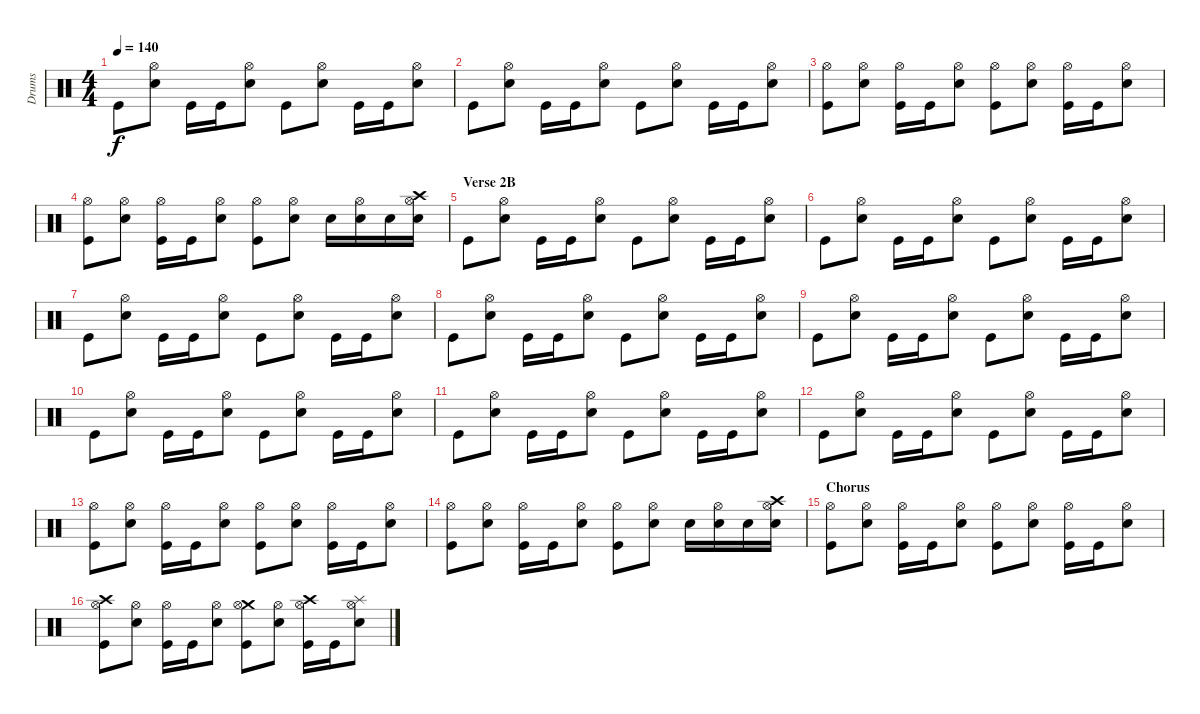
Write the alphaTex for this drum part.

\track ("Drums" "Drums") {instrument percussion}
\staff {score}
\articulation defaults
\ts (4 4)
\tempo 140
\clef neutral
\ks c "Kick (hit)".8{dy f}
("Snare (hit) 2" "Hi-Hat (open)").8 "Kick (hit)".16 "Kick (hit)".16 ("Snare (hit) 2" "Hi-Hat (open)").8 "Kick (hit)".8 ("Snare (hit) 2" "Hi-Hat (open)").8 "Kick (hit)".16 "Kick (hit)".16 ("Snare (hit) 2" "Hi-Hat (open)").8 |
"Kick (hit)".8 ("Snare (hit) 2" "Hi-Hat (open)").8 "Kick (hit)".16 "Kick (hit)".16 ("Snare (hit) 2" "Hi-Hat (open)").8 "Kick (hit)".8 ("Snare (hit) 2" "Hi-Hat (open)").8 "Kick (hit)".16 "Kick (hit)".16 ("Snare (hit) 2" "Hi-Hat (open)").8 |
("Kick (hit)" "Hi-Hat (open)").8 ("Snare (hit) 2" "Hi-Hat (open)").8 ("Kick (hit)" "Hi-Hat (open)").16 "Kick (hit)".16 ("Snare (hit) 2" "Hi-Hat (open)").8 ("Kick (hit)" "Hi-Hat (open)").8 ("Snare (hit) 2" "Hi-Hat (open)").8 ("Kick (hit)" "Hi-Hat (open)").16 "Kick (hit)".16 ("Snare (hit) 2" "Hi-Hat (open)").8 |
("Kick (hit)" "Hi-Hat (open)").8 ("Snare (hit) 2" "Hi-Hat (open)").8 ("Kick (hit)" "Hi-Hat (open)").16 "Kick (hit)".16 ("Snare (hit) 2" "Hi-Hat (open)").8 ("Kick (hit)" "Hi-Hat (open)").8 ("Snare (hit) 2" "Hi-Hat (open)").8 "Electric Snare (hit)".16 ("Electric Snare (hit)" "Hi-Hat (open)").16 "Electric Snare (hit)".16 ("Crash high (hit)" "Electric Snare (hit)" "Hi-Hat (open)").16 |
\section ("" "Verse 2B")
"Kick (hit)".8 ("Snare (hit) 2" "Hi-Hat (open)").8 "Kick (hit)".16 "Kick (hit)".16 ("Snare (hit) 2" "Hi-Hat (open)").8 "Kick (hit)".8 ("Snare (hit) 2" "Hi-Hat (open)").8 "Kick (hit)".16 "Kick (hit)".16 ("Snare (hit) 2" "Hi-Hat (open)").8 |
"Kick (hit)".8 ("Snare (hit) 2" "Hi-Hat (open)").8 "Kick (hit)".16 "Kick (hit)".16 ("Snare (hit) 2" "Hi-Hat (open)").8 "Kick (hit)".8 ("Snare (hit) 2" "Hi-Hat (open)").8 "Kick (hit)".16 "Kick (hit)".16 ("Snare (hit) 2" "Hi-Hat (open)").8 |
"Kick (hit)".8 ("Snare (hit) 2" "Hi-Hat (open)").8 "Kick (hit)".16 "Kick (hit)".16 ("Snare (hit) 2" "Hi-Hat (open)").8 "Kick (hit)".8 ("Snare (hit) 2" "Hi-Hat (open)").8 "Kick (hit)".16 "Kick (hit)".16 ("Snare (hit) 2" "Hi-Hat (open)").8 |
"Kick (hit)".8 ("Snare (hit) 2" "Hi-Hat (open)").8 "Kick (hit)".16 "Kick (hit)".16 ("Snare (hit) 2" "Hi-Hat (open)").8 "Kick (hit)".8 ("Snare (hit) 2" "Hi-Hat (open)").8 "Kick (hit)".16 "Kick (hit)".16 ("Snare (hit) 2" "Hi-Hat (open)").8 |
"Kick (hit)".8 ("Snare (hit) 2" "Hi-Hat (open)").8 "Kick (hit)".16 "Kick (hit)".16 ("Snare (hit) 2" "Hi-Hat (open)").8 "Kick (hit)".8 ("Snare (hit) 2" "Hi-Hat (open)").8 "Kick (hit)".16 "Kick (hit)".16 ("Snare (hit) 2" "Hi-Hat (open)").8 |
"Kick (hit)".8 ("Snare (hit) 2" "Hi-Hat (open)").8 "Kick (hit)".16 "Kick (hit)".16 ("Snare (hit) 2" "Hi-Hat (open)").8 "Kick (hit)".8 ("Snare (hit) 2" "Hi-Hat (open)").8 "Kick (hit)".16 "Kick (hit)".16 ("Snare (hit) 2" "Hi-Hat (open)").8 |
"Kick (hit)".8 ("Snare (hit) 2" "Hi-Hat (open)").8 "Kick (hit)".16 "Kick (hit)".16 ("Snare (hit) 2" "Hi-Hat (open)").8 "Kick (hit)".8 ("Snare (hit) 2" "Hi-Hat (open)").8 "Kick (hit)".16 "Kick (hit)".16 ("Snare (hit) 2" "Hi-Hat (open)").8 |
"Kick (hit)".8 ("Snare (hit) 2" "Hi-Hat (open)").8 "Kick (hit)".16 "Kick (hit)".16 ("Snare (hit) 2" "Hi-Hat (open)").8 "Kick (hit)".8 ("Snare (hit) 2" "Hi-Hat (open)").8 "Kick (hit)".16 "Kick (hit)".16 ("Snare (hit) 2" "Hi-Hat (open)").8 |
("Kick (hit)" "Hi-Hat (open)").8 ("Snare (hit) 2" "Hi-Hat (open)").8 ("Kick (hit)" "Hi-Hat (open)").16 "Kick (hit)".16 ("Snare (hit) 2" "Hi-Hat (open)").8 ("Kick (hit)" "Hi-Hat (open)").8 ("Snare (hit) 2" "Hi-Hat (open)").8 ("Kick (hit)" "Hi-Hat (open)").16 "Kick (hit)".16 ("Snare (hit) 2" "Hi-Hat (open)").8 |
("Kick (hit)" "Hi-Hat (open)").8 ("Snare (hit) 2" "Hi-Hat (open)").8 ("Kick (hit)" "Hi-Hat (open)").16 "Kick (hit)".16 ("Snare (hit) 2" "Hi-Hat (open)").8 ("Kick (hit)" "Hi-Hat (open)").8 ("Snare (hit) 2" "Hi-Hat (open)").8 "Electric Snare (hit)".16 ("Electric Snare (hit)" "Hi-Hat (open)").16 "Electric Snare (hit)".16 ("Crash high (hit)" "Electric Snare (hit)" "Hi-Hat (open)").16 |
\section ("" "Chorus")
("Kick (hit)" "Hi-Hat (open)").8 ("Snare (hit) 2" "Hi-Hat (open)").8 ("Kick (hit)" "Hi-Hat (open)").16 "Kick (hit)".16 ("Snare (hit) 2" "Hi-Hat (open)").8 ("Kick (hit)" "Hi-Hat (open)").8 ("Snare (hit) 2" "Hi-Hat (open)").8 ("Kick (hit)" "Hi-Hat (open)").16 "Kick (hit)".16 ("Snare (hit) 2" "Hi-Hat (open)").8 |
("Crash high (hit)" "Kick (hit)" "Hi-Hat (open)").8 ("Snare (hit) 2" "Hi-Hat (open)").8 ("Kick (hit)" "Hi-Hat (open)").16 "Kick (hit)".16 ("Snare (hit) 2" "Hi-Hat (open)").8 ("Crash medium (hit)" "Kick (hit)" "Hi-Hat (open)").8 ("Snare (hit) 2" "Hi-Hat (open)").8 ("Crash high (hit)" "Kick (hit)" "Hi-Hat (open)").16 "Kick (hit)".16 ("Splash (hit)" "Snare (hit) 2" "Hi-Hat (open)").8
